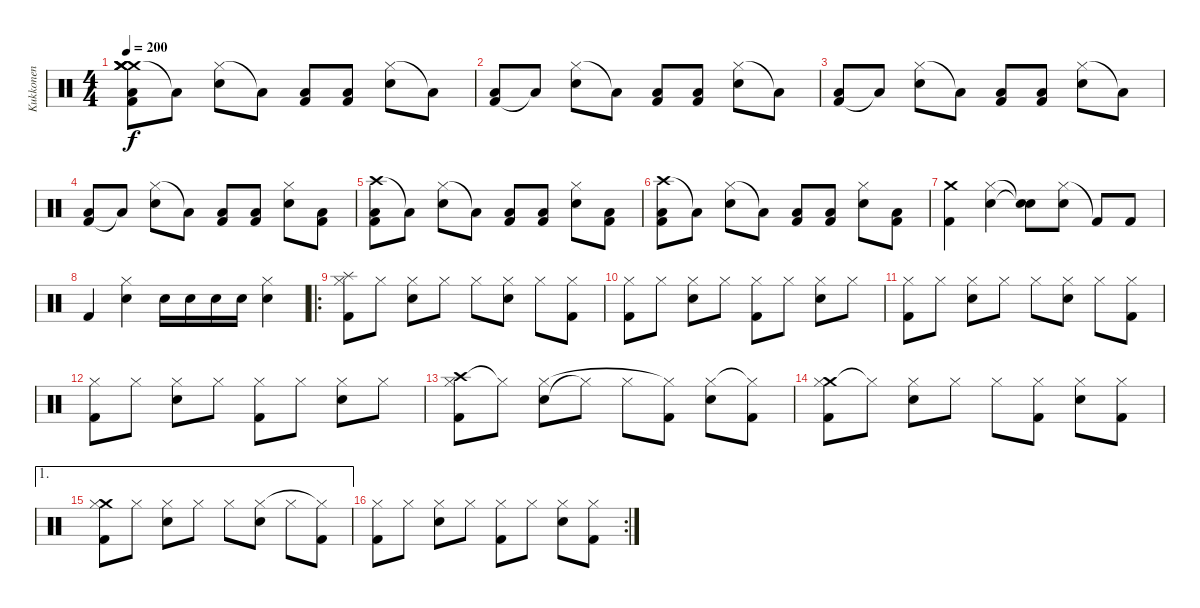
\track ("Kukkonen" "Kukkonen") {instrument percussion}
\staff {score}
\articulation defaults
\ts (4 4)
\tempo 200
\clef neutral
\ks c
("Crash medium (hit)" "Crash medium (hit)" "Crash medium (hit)" "Crash medium (hit)" "Kick (hit) 2" "Low Tom (hit)").8{dy f} "Low Tom (hit)"{t}.8 ("Hi-Hat (closed)" "Electric Snare (hit)").8 "Low Tom (hit)"{t}.8 ("Kick (hit) 2" "Low Tom (hit)").8 ("Kick (hit) 2" "Low Tom (hit)").8 ("Hi-Hat (closed)" "Electric Snare (hit)").8 "Low Tom (hit)"{t}.8 |
("Kick (hit) 2" "Low Tom (hit)").8 "Low Tom (hit)"{t}.8 ("Hi-Hat (closed)" "Electric Snare (hit)").8 "Low Tom (hit)"{t}.8 ("Kick (hit) 2" "Low Tom (hit)").8 ("Kick (hit) 2" "Low Tom (hit)").8 ("Hi-Hat (closed)" "Electric Snare (hit)").8 "Low Tom (hit)"{t}.8 |
("Kick (hit) 2" "Low Tom (hit)").8 "Low Tom (hit)"{t}.8 ("Hi-Hat (closed)" "Electric Snare (hit)").8 "Low Tom (hit)"{t}.8 ("Kick (hit) 2" "Low Tom (hit)").8 ("Kick (hit) 2" "Low Tom (hit)").8 ("Hi-Hat (closed)" "Electric Snare (hit)").8 "Low Tom (hit)"{t}.8 |
("Kick (hit) 2" "Low Tom (hit)").8 "Low Tom (hit)"{t}.8 ("Hi-Hat (closed)" "Electric Snare (hit)").8 "Low Tom (hit)"{t}.8 ("Kick (hit) 2" "Low Tom (hit)").8 ("Kick (hit) 2" "Low Tom (hit)").8 ("Hi-Hat (closed)" "Electric Snare (hit)").8 ("Kick (hit) 2" "Low Tom (hit)").8 |
("Crash high (hit)" "Kick (hit) 2" "Low Tom (hit)").8 "Low Tom (hit)"{t}.8 ("Hi-Hat (closed)" "Electric Snare (hit)").8 "Low Tom (hit)"{t}.8 ("Kick (hit) 2" "Low Tom (hit)").8 ("Kick (hit) 2" "Low Tom (hit)").8 ("Hi-Hat (closed)" "Electric Snare (hit)").8 ("Kick (hit) 2" "Low Tom (hit)").8 |
("Crash high (hit)" "Kick (hit) 2" "Low Tom (hit)").8 "Low Tom (hit)"{t}.8 ("Hi-Hat (closed)" "Electric Snare (hit)").8 "Low Tom (hit)"{t}.8 ("Kick (hit) 2" "Low Tom (hit)").8 ("Kick (hit) 2" "Low Tom (hit)").8 ("Hi-Hat (closed)" "Electric Snare (hit)").8 ("Kick (hit) 2" "Low Tom (hit)").8 |
("Kick (hit) 2" "Crash medium (hit)").4 ("Hi-Hat (closed)" "Electric Snare (hit)").4 ("Snare (hit)"{t} "Snare (hit)"{t}).8 ("Hi-Hat (closed)" "Electric Snare (hit)").8 "Kick (hit) 2"{t}.8 "Kick (hit) 2".8 |
"Kick (hit) 2".4 ("Hi-Hat (closed)" "Electric Snare (hit)").4 "Electric Snare (hit)".16 "Electric Snare (hit)".16 "Electric Snare (hit)".16 "Electric Snare (hit)".16 ("Hi-Hat (closed)" "Electric Snare (hit)").4 |
\ro
("Splash (hit)" "Kick (hit) 2" "Hi-Hat (closed)").8 "Hi-Hat (closed)".8 ("Electric Snare (hit)" "Hi-Hat (closed)").8 "Hi-Hat (closed)".8 "Hi-Hat (closed)".8 ("Electric Snare (hit)" "Hi-Hat (closed)").8 "Hi-Hat (closed)".8 ("Kick (hit) 2" "Hi-Hat (closed)").8 |
("Kick (hit) 2" "Hi-Hat (closed)").8 "Hi-Hat (closed)".8 ("Electric Snare (hit)" "Hi-Hat (closed)").8 "Hi-Hat (closed)".8 ("Kick (hit) 2" "Hi-Hat (closed)").8 "Hi-Hat (closed)".8 ("Electric Snare (hit)" "Hi-Hat (closed)").8 "Hi-Hat (closed)".8 |
("Kick (hit) 2" "Hi-Hat (closed)").8 "Hi-Hat (closed)".8 ("Electric Snare (hit)" "Hi-Hat (closed)").8 "Hi-Hat (closed)".8 "Hi-Hat (closed)".8 ("Electric Snare (hit)" "Hi-Hat (closed)").8 "Hi-Hat (closed)".8 ("Kick (hit) 2" "Hi-Hat (closed)").8 |
("Kick (hit) 2" "Hi-Hat (closed)").8 "Hi-Hat (closed)".8 ("Electric Snare (hit)" "Hi-Hat (closed)").8 "Hi-Hat (closed)".8 ("Kick (hit) 2" "Hi-Hat (closed)").8 "Hi-Hat (closed)".8 ("Electric Snare (hit)" "Hi-Hat (closed)").8 "Hi-Hat (closed)".8 |
("Crash high (hit)" "Kick (hit) 2" "Hi-Hat (closed)").8 "Hi-Hat (closed)"{t}.8 ("Electric Snare (hit)" "Hi-Hat (closed)").8 "Hi-Hat (closed)"{t}.8 "Hi-Hat (closed)".8 ("Kick (hit) 2" "Hi-Hat (closed)"{t}).8 ("Electric Snare (hit)" "Hi-Hat (closed)").8 ("Kick (hit) 2" "Hi-Hat (closed)"{t}).8 |
("Crash medium (hit)" "Kick (hit) 2" "Hi-Hat (closed)").8 "Hi-Hat (closed)"{t}.8 ("Electric Snare (hit)" "Hi-Hat (closed)").8 "Hi-Hat (closed)".8 "Hi-Hat (closed)".8 ("Kick (hit) 2" "Hi-Hat (closed)").8 ("Electric Snare (hit)" "Hi-Hat (closed)").8 ("Kick (hit) 2" "Hi-Hat (closed)").8 |
\ae 1
("Crash medium (hit)" "Kick (hit) 2" "Hi-Hat (closed)").8 "Hi-Hat (closed)".8 ("Electric Snare (hit)" "Hi-Hat (closed)").8 "Hi-Hat (closed)".8 "Hi-Hat (closed)".8 ("Electric Snare (hit)" "Hi-Hat (closed)").8 "Hi-Hat (closed)".8 ("Kick (hit) 2" "Hi-Hat (closed)"{t}).8 |
\rc 2
("Kick (hit) 2" "Hi-Hat (closed)").8 "Hi-Hat (closed)".8 ("Electric Snare (hit)" "Hi-Hat (closed)").8 "Hi-Hat (closed)".8 ("Kick (hit) 2" "Hi-Hat (closed)").8 "Hi-Hat (closed)".8 ("Electric Snare (hit)" "Hi-Hat (closed)").8 ("Kick (hit) 2" "Hi-Hat (closed)").8
